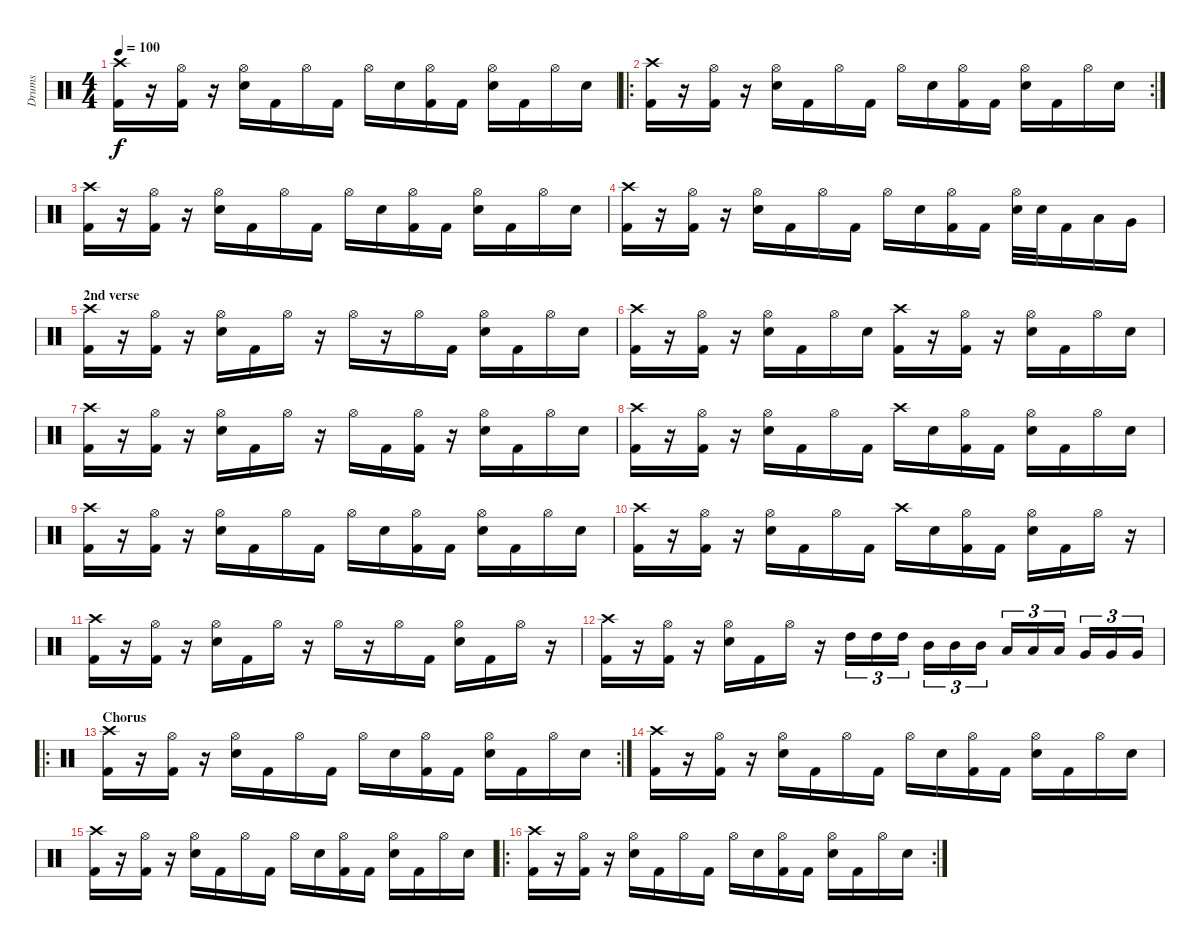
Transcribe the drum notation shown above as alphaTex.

\track ("Drums" "Drums") {instrument percussion}
\staff {score}
\articulation defaults
\ts (4 4)
\tempo 100
\clef neutral
\ks c
("Crash high (hit)" "Kick (hit) 2").16{dy f} r.16 ("Hi-Hat (open)" "Kick (hit) 2").16 r.16 ("Hi-Hat (open)" "Electric Snare (hit)").16 "Kick (hit) 2".16 "Hi-Hat (open)".16 "Kick (hit) 2".16 "Hi-Hat (open)".16 "Electric Snare (hit)".16 ("Hi-Hat (open)" "Kick (hit) 2").16 "Kick (hit) 2".16 ("Hi-Hat (open)" "Electric Snare (hit)").16 "Kick (hit) 2".16 "Hi-Hat (open)".16 "Electric Snare (hit)".16 |
\ro
\rc 2
("Crash high (hit)" "Kick (hit) 2").16 r.16 ("Hi-Hat (open)" "Kick (hit) 2").16 r.16 ("Hi-Hat (open)" "Electric Snare (hit)").16 "Kick (hit) 2".16 "Hi-Hat (open)".16 "Kick (hit) 2".16 "Hi-Hat (open)".16 "Electric Snare (hit)".16 ("Hi-Hat (open)" "Kick (hit) 2").16 "Kick (hit) 2".16 ("Hi-Hat (open)" "Electric Snare (hit)").16 "Kick (hit) 2".16 "Hi-Hat (open)".16 "Electric Snare (hit)".16 |
("Crash high (hit)" "Kick (hit) 2").16 r.16 ("Hi-Hat (open)" "Kick (hit) 2").16 r.16 ("Hi-Hat (open)" "Electric Snare (hit)").16 "Kick (hit) 2".16 "Hi-Hat (open)".16 "Kick (hit) 2".16 "Hi-Hat (open)".16 "Electric Snare (hit)".16 ("Hi-Hat (open)" "Kick (hit) 2").16 "Kick (hit) 2".16 ("Hi-Hat (open)" "Electric Snare (hit)").16 "Kick (hit) 2".16 "Hi-Hat (open)".16 "Electric Snare (hit)".16 |
("Crash high (hit)" "Kick (hit) 2").16 r.16 ("Hi-Hat (open)" "Kick (hit) 2").16 r.16 ("Hi-Hat (open)" "Electric Snare (hit)").16 "Kick (hit) 2".16 "Hi-Hat (open)".16 "Kick (hit) 2".16 "Hi-Hat (open)".16 "Electric Snare (hit)".16 ("Hi-Hat (open)" "Kick (hit) 2").16 "Kick (hit) 2".16 ("Hi-Hat (open)" "Electric Snare (hit)").32 "Electric Snare (hit)".32 "Kick (hit) 2".16 "Low Tom (hit)".16 "Very Low Tom (hit)".16 |
\section ("" "2nd verse")
("Crash high (hit)" "Kick (hit) 2").16 r.16 ("Hi-Hat (open)" "Kick (hit) 2").16 r.16 ("Hi-Hat (open)" "Electric Snare (hit)").16 "Kick (hit) 2".16 "Hi-Hat (open)".16 r.16 "Hi-Hat (open)".16 r.16 "Hi-Hat (open)".16 "Kick (hit) 2".16 ("Hi-Hat (open)" "Electric Snare (hit)").16 "Kick (hit) 2".16 "Hi-Hat (open)".16 "Electric Snare (hit)".16 |
("Crash high (hit)" "Kick (hit) 2").16 r.16 ("Hi-Hat (open)" "Kick (hit) 2").16 r.16 ("Hi-Hat (open)" "Electric Snare (hit)").16 "Kick (hit) 2".16 "Hi-Hat (open)".16 "Electric Snare (hit)".16 ("Crash high (hit)" "Kick (hit) 2").16 r.16 ("Hi-Hat (open)" "Kick (hit) 2").16 r.16 ("Hi-Hat (open)" "Electric Snare (hit)").16 "Kick (hit) 2".16 "Hi-Hat (open)".16 "Electric Snare (hit)".16 |
("Crash high (hit)" "Kick (hit) 2").16 r.16 ("Hi-Hat (open)" "Kick (hit) 2").16 r.16 ("Hi-Hat (open)" "Electric Snare (hit)").16 "Kick (hit) 2".16 "Hi-Hat (open)".16 r.16 "Hi-Hat (open)".16 "Kick (hit) 2".16 ("Hi-Hat (open)" "Kick (hit) 2").16 r.16 ("Hi-Hat (open)" "Electric Snare (hit)").16 "Kick (hit) 2".16 "Hi-Hat (open)".16 "Electric Snare (hit)".16 |
("Crash high (hit)" "Kick (hit) 2").16 r.16 ("Hi-Hat (open)" "Kick (hit) 2").16 r.16 ("Hi-Hat (open)" "Electric Snare (hit)").16 "Kick (hit) 2".16 "Hi-Hat (open)".16 "Kick (hit) 2".16 "Crash high (hit)".16 "Electric Snare (hit)".16 ("Hi-Hat (open)" "Kick (hit) 2").16 "Kick (hit) 2".16 ("Hi-Hat (open)" "Electric Snare (hit)").16 "Kick (hit) 2".16 "Hi-Hat (open)".16 "Electric Snare (hit)".16 |
("Crash high (hit)" "Kick (hit) 2").16 r.16 ("Hi-Hat (open)" "Kick (hit) 2").16 r.16 ("Hi-Hat (open)" "Electric Snare (hit)").16 "Kick (hit) 2".16 "Hi-Hat (open)".16 "Kick (hit) 2".16 "Hi-Hat (open)".16 "Electric Snare (hit)".16 ("Hi-Hat (open)" "Kick (hit) 2").16 "Kick (hit) 2".16 ("Hi-Hat (open)" "Electric Snare (hit)").16 "Kick (hit) 2".16 "Hi-Hat (open)".16 "Electric Snare (hit)".16 |
("Crash high (hit)" "Kick (hit) 2").16 r.16 ("Hi-Hat (open)" "Kick (hit) 2").16 r.16 ("Hi-Hat (open)" "Electric Snare (hit)").16 "Kick (hit) 2".16 "Hi-Hat (open)".16 "Kick (hit) 2".16 "Crash high (hit)".16 "Electric Snare (hit)".16 ("Hi-Hat (open)" "Kick (hit) 2").16 "Kick (hit) 2".16 ("Hi-Hat (open)" "Electric Snare (hit)").16 "Kick (hit) 2".16 "Hi-Hat (open)".16 r.16 |
("Crash high (hit)" "Kick (hit) 2").16 r.16 ("Hi-Hat (open)" "Kick (hit) 2").16 r.16 ("Hi-Hat (open)" "Electric Snare (hit)").16 "Kick (hit) 2".16 "Hi-Hat (open)".16 r.16 "Hi-Hat (open)".16 r.16 "Hi-Hat (open)".16 "Kick (hit) 2".16 ("Hi-Hat (open)" "Electric Snare (hit)").16 "Kick (hit) 2".16 "Hi-Hat (open)".16 r.16 |
("Crash high (hit)" "Kick (hit) 2").16 r.16 ("Hi-Hat (open)" "Kick (hit) 2").16 r.16 ("Hi-Hat (open)" "Electric Snare (hit)").16 "Kick (hit) 2".16 "Hi-Hat (open)".16 r.16 "High Tom (hit)".16{tu (3 2)} "High Tom (hit)".16{tu (3 2)} "High Tom (hit)".16{tu (3 2)} "Mid Tom (hit)".16{tu (3 2)} "Mid Tom (hit)".16{tu (3 2)} "Mid Tom (hit)".16{tu (3 2)} "Low Tom (hit)".16{tu (3 2)} "Low Tom (hit)".16{tu (3 2)} "Low Tom (hit)".16{tu (3 2)} "Very Low Tom (hit)".16{tu (3 2)} "Very Low Tom (hit)".16{tu (3 2)} "Very Low Tom (hit)".16{tu (3 2)} |
\ro
\rc 2
\section ("" "Chorus")
("Crash high (hit)" "Kick (hit) 2").16 r.16 ("Hi-Hat (open)" "Kick (hit) 2").16 r.16 ("Hi-Hat (open)" "Electric Snare (hit)").16 "Kick (hit) 2".16 "Hi-Hat (open)".16 "Kick (hit) 2".16 "Hi-Hat (open)".16 "Electric Snare (hit)".16 ("Hi-Hat (open)" "Kick (hit) 2").16 "Kick (hit) 2".16 ("Hi-Hat (open)" "Electric Snare (hit)").16 "Kick (hit) 2".16 "Hi-Hat (open)".16 "Electric Snare (hit)".16 |
("Crash high (hit)" "Kick (hit) 2").16 r.16 ("Hi-Hat (open)" "Kick (hit) 2").16 r.16 ("Hi-Hat (open)" "Electric Snare (hit)").16 "Kick (hit) 2".16 "Hi-Hat (open)".16 "Kick (hit) 2".16 "Hi-Hat (open)".16 "Electric Snare (hit)".16 ("Hi-Hat (open)" "Kick (hit) 2").16 "Kick (hit) 2".16 ("Hi-Hat (open)" "Electric Snare (hit)").16 "Kick (hit) 2".16 "Hi-Hat (open)".16 "Electric Snare (hit)".16 |
("Crash high (hit)" "Kick (hit) 2").16 r.16 ("Hi-Hat (open)" "Kick (hit) 2").16 r.16 ("Hi-Hat (open)" "Electric Snare (hit)").16 "Kick (hit) 2".16 "Hi-Hat (open)".16 "Kick (hit) 2".16 "Hi-Hat (open)".16 "Electric Snare (hit)".16 ("Hi-Hat (open)" "Kick (hit) 2").16 "Kick (hit) 2".16 ("Hi-Hat (open)" "Electric Snare (hit)").16 "Kick (hit) 2".16 "Hi-Hat (open)".16 "Electric Snare (hit)".16 |
\ro
\rc 2
("Crash high (hit)" "Kick (hit) 2").16 r.16 ("Hi-Hat (open)" "Kick (hit) 2").16 r.16 ("Hi-Hat (open)" "Electric Snare (hit)").16 "Kick (hit) 2".16 "Hi-Hat (open)".16 "Kick (hit) 2".16 "Hi-Hat (open)".16 "Electric Snare (hit)".16 ("Hi-Hat (open)" "Kick (hit) 2").16 "Kick (hit) 2".16 ("Hi-Hat (open)" "Electric Snare (hit)").16 "Kick (hit) 2".16 "Hi-Hat (open)".16 "Electric Snare (hit)".16
